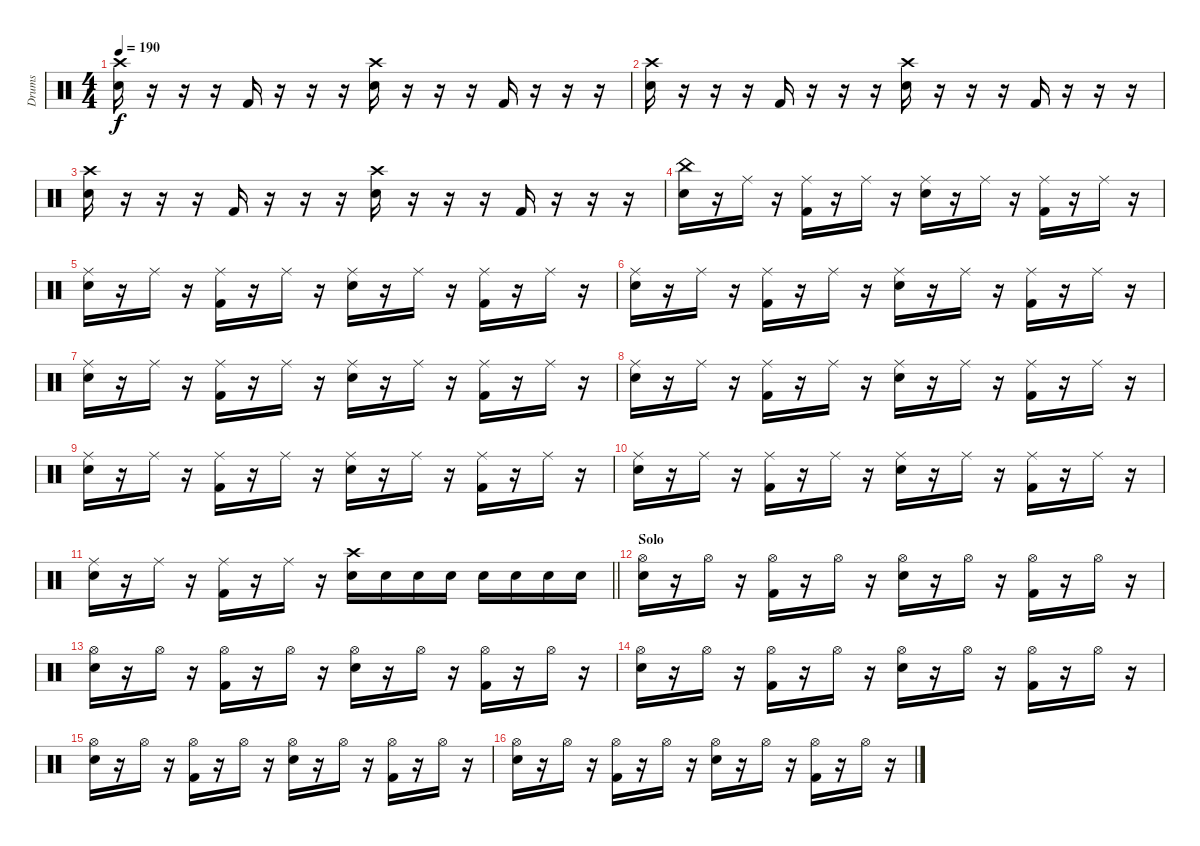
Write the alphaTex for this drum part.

\track ("Drums" "Drums") {instrument percussion}
\staff {score}
\articulation defaults
\ts (4 4)
\tempo 190
\clef neutral
\ks c
("Crash high (hit)" "Electric Snare (hit)").16{dy f} r.16 r.16 r.16 "Kick (hit) 2".16 r.16 r.16 r.16 ("Crash high (hit)" "Electric Snare (hit)").16 r.16 r.16 r.16 "Kick (hit) 2".16 r.16 r.16 r.16 |
("Crash high (hit)" "Electric Snare (hit)").16 r.16 r.16 r.16 "Kick (hit) 2".16 r.16 r.16 r.16 ("Crash high (hit)" "Electric Snare (hit)").16 r.16 r.16 r.16 "Kick (hit) 2".16 r.16 r.16 r.16 |
("Crash high (hit)" "Electric Snare (hit)").16 r.16 r.16 r.16 "Kick (hit) 2".16 r.16 r.16 r.16 ("Crash high (hit)" "Electric Snare (hit)").16 r.16 r.16 r.16 "Kick (hit) 2".16 r.16 r.16 r.16 |
("China (hit)" "Electric Snare (hit)").16 r.16 "Ride (middle)".16 r.16 ("Ride (middle)" "Kick (hit) 2").16 r.16 "Ride (middle)".16 r.16 ("Ride (middle)" "Electric Snare (hit)").16 r.16 "Ride (middle)".16 r.16 ("Ride (middle)" "Kick (hit) 2").16 r.16 "Ride (middle)".16 r.16 |
("Ride (middle)" "Electric Snare (hit)").16 r.16 "Ride (middle)".16 r.16 ("Ride (middle)" "Kick (hit) 2").16 r.16 "Ride (middle)".16 r.16 ("Ride (middle)" "Electric Snare (hit)").16 r.16 "Ride (middle)".16 r.16 ("Ride (middle)" "Kick (hit) 2").16 r.16 "Ride (middle)".16 r.16 |
("Ride (middle)" "Electric Snare (hit)").16 r.16 "Ride (middle)".16 r.16 ("Ride (middle)" "Kick (hit) 2").16 r.16 "Ride (middle)".16 r.16 ("Ride (middle)" "Electric Snare (hit)").16 r.16 "Ride (middle)".16 r.16 ("Ride (middle)" "Kick (hit) 2").16 r.16 "Ride (middle)".16 r.16 |
("Ride (middle)" "Electric Snare (hit)").16 r.16 "Ride (middle)".16 r.16 ("Ride (middle)" "Kick (hit) 2").16 r.16 "Ride (middle)".16 r.16 ("Ride (middle)" "Electric Snare (hit)").16 r.16 "Ride (middle)".16 r.16 ("Ride (middle)" "Kick (hit) 2").16 r.16 "Ride (middle)".16 r.16 |
("Ride (middle)" "Electric Snare (hit)").16 r.16 "Ride (middle)".16 r.16 ("Ride (middle)" "Kick (hit) 2").16 r.16 "Ride (middle)".16 r.16 ("Ride (middle)" "Electric Snare (hit)").16 r.16 "Ride (middle)".16 r.16 ("Ride (middle)" "Kick (hit) 2").16 r.16 "Ride (middle)".16 r.16 |
("Ride (middle)" "Electric Snare (hit)").16 r.16 "Ride (middle)".16 r.16 ("Ride (middle)" "Kick (hit) 2").16 r.16 "Ride (middle)".16 r.16 ("Ride (middle)" "Electric Snare (hit)").16 r.16 "Ride (middle)".16 r.16 ("Ride (middle)" "Kick (hit) 2").16 r.16 "Ride (middle)".16 r.16 |
("Ride (middle)" "Electric Snare (hit)").16 r.16 "Ride (middle)".16 r.16 ("Ride (middle)" "Kick (hit) 2").16 r.16 "Ride (middle)".16 r.16 ("Ride (middle)" "Electric Snare (hit)").16 r.16 "Ride (middle)".16 r.16 ("Ride (middle)" "Kick (hit) 2").16 r.16 "Ride (middle)".16 r.16 |
\barLineRight lightlight
("Ride (middle)" "Electric Snare (hit)").16 r.16 "Ride (middle)".16 r.16 ("Ride (middle)" "Kick (hit) 2").16 r.16 "Ride (middle)".16 r.16 ("Crash high (hit)" "Electric Snare (hit)").16 "Electric Snare (hit)".16 "Electric Snare (hit)".16 "Electric Snare (hit)".16 "Electric Snare (hit)".16 "Electric Snare (hit)".16 "Electric Snare (hit)".16 "Electric Snare (hit)".16 |
\section ("" "Solo")
("Hi-Hat (open)" "Electric Snare (hit)").16 r.16 "Hi-Hat (open)".16 r.16 ("Hi-Hat (open)" "Kick (hit) 2").16 r.16 "Hi-Hat (open)".16 r.16 ("Hi-Hat (open)" "Electric Snare (hit)").16 r.16 "Hi-Hat (open)".16 r.16 ("Hi-Hat (open)" "Kick (hit) 2").16 r.16 "Hi-Hat (open)".16 r.16 |
("Hi-Hat (open)" "Electric Snare (hit)").16 r.16 "Hi-Hat (open)".16 r.16 ("Hi-Hat (open)" "Kick (hit) 2").16 r.16 "Hi-Hat (open)".16 r.16 ("Hi-Hat (open)" "Electric Snare (hit)").16 r.16 "Hi-Hat (open)".16 r.16 ("Hi-Hat (open)" "Kick (hit) 2").16 r.16 "Hi-Hat (open)".16 r.16 |
("Hi-Hat (open)" "Electric Snare (hit)").16 r.16 "Hi-Hat (open)".16 r.16 ("Hi-Hat (open)" "Kick (hit) 2").16 r.16 "Hi-Hat (open)".16 r.16 ("Hi-Hat (open)" "Electric Snare (hit)").16 r.16 "Hi-Hat (open)".16 r.16 ("Hi-Hat (open)" "Kick (hit) 2").16 r.16 "Hi-Hat (open)".16 r.16 |
("Hi-Hat (open)" "Electric Snare (hit)").16 r.16 "Hi-Hat (open)".16 r.16 ("Hi-Hat (open)" "Kick (hit) 2").16 r.16 "Hi-Hat (open)".16 r.16 ("Hi-Hat (open)" "Electric Snare (hit)").16 r.16 "Hi-Hat (open)".16 r.16 ("Hi-Hat (open)" "Kick (hit) 2").16 r.16 "Hi-Hat (open)".16 r.16 |
("Hi-Hat (open)" "Electric Snare (hit)").16 r.16 "Hi-Hat (open)".16 r.16 ("Hi-Hat (open)" "Kick (hit) 2").16 r.16 "Hi-Hat (open)".16 r.16 ("Hi-Hat (open)" "Electric Snare (hit)").16 r.16 "Hi-Hat (open)".16 r.16 ("Hi-Hat (open)" "Kick (hit) 2").16 r.16 "Hi-Hat (open)".16 r.16
